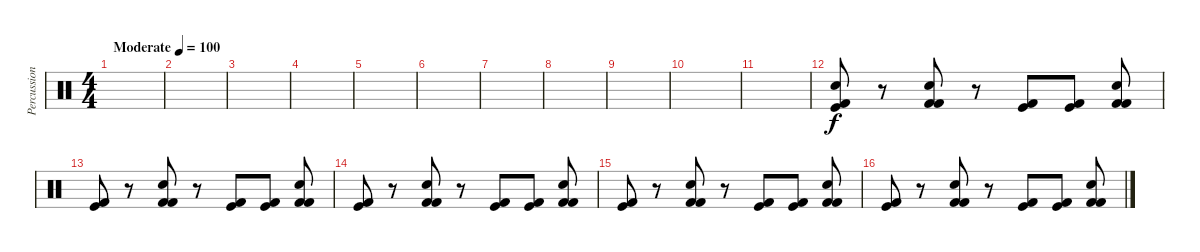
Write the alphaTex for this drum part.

\track ("Percussions" "Percussion") {instrument percussion}
\staff {score}
\articulation defaults
\ts (4 4)
\tempo (100 "Moderate")
\clef neutral
\ks c
|
|
|
|
|
|
|
|
|
|
|
("Snare (hit) 2" "Kick (hit)" "Kick (hit) 2").8 r.8 ("Kick (hit) 2" "Electric Snare (hit)" "Kick (hit) 2").8 r.8 ("Kick (hit)" "Kick (hit) 2").8 ("Kick (hit)" "Kick (hit) 2").8 ("Kick (hit) 2" "Electric Snare (hit)" "Kick (hit) 2").8 |
("Kick (hit)" "Kick (hit) 2").8 r.8 ("Kick (hit) 2" "Electric Snare (hit)" "Kick (hit) 2").8 r.8 ("Kick (hit)" "Kick (hit) 2").8 ("Kick (hit)" "Kick (hit) 2").8 ("Kick (hit) 2" "Electric Snare (hit)" "Kick (hit) 2").8 |
("Kick (hit)" "Kick (hit) 2").8 r.8 ("Kick (hit) 2" "Electric Snare (hit)" "Kick (hit) 2").8 r.8 ("Kick (hit)" "Kick (hit) 2").8 ("Kick (hit)" "Kick (hit) 2").8 ("Kick (hit) 2" "Electric Snare (hit)" "Kick (hit) 2").8 |
("Kick (hit)" "Kick (hit) 2").8 r.8 ("Kick (hit) 2" "Electric Snare (hit)" "Kick (hit) 2").8 r.8 ("Kick (hit)" "Kick (hit) 2").8 ("Kick (hit)" "Kick (hit) 2").8 ("Kick (hit) 2" "Electric Snare (hit)" "Kick (hit) 2").8 |
("Kick (hit)" "Kick (hit) 2").8 r.8 ("Kick (hit) 2" "Electric Snare (hit)" "Kick (hit) 2").8 r.8 ("Kick (hit)" "Kick (hit) 2").8 ("Kick (hit)" "Kick (hit) 2").8 ("Kick (hit) 2" "Electric Snare (hit)" "Kick (hit) 2").8
